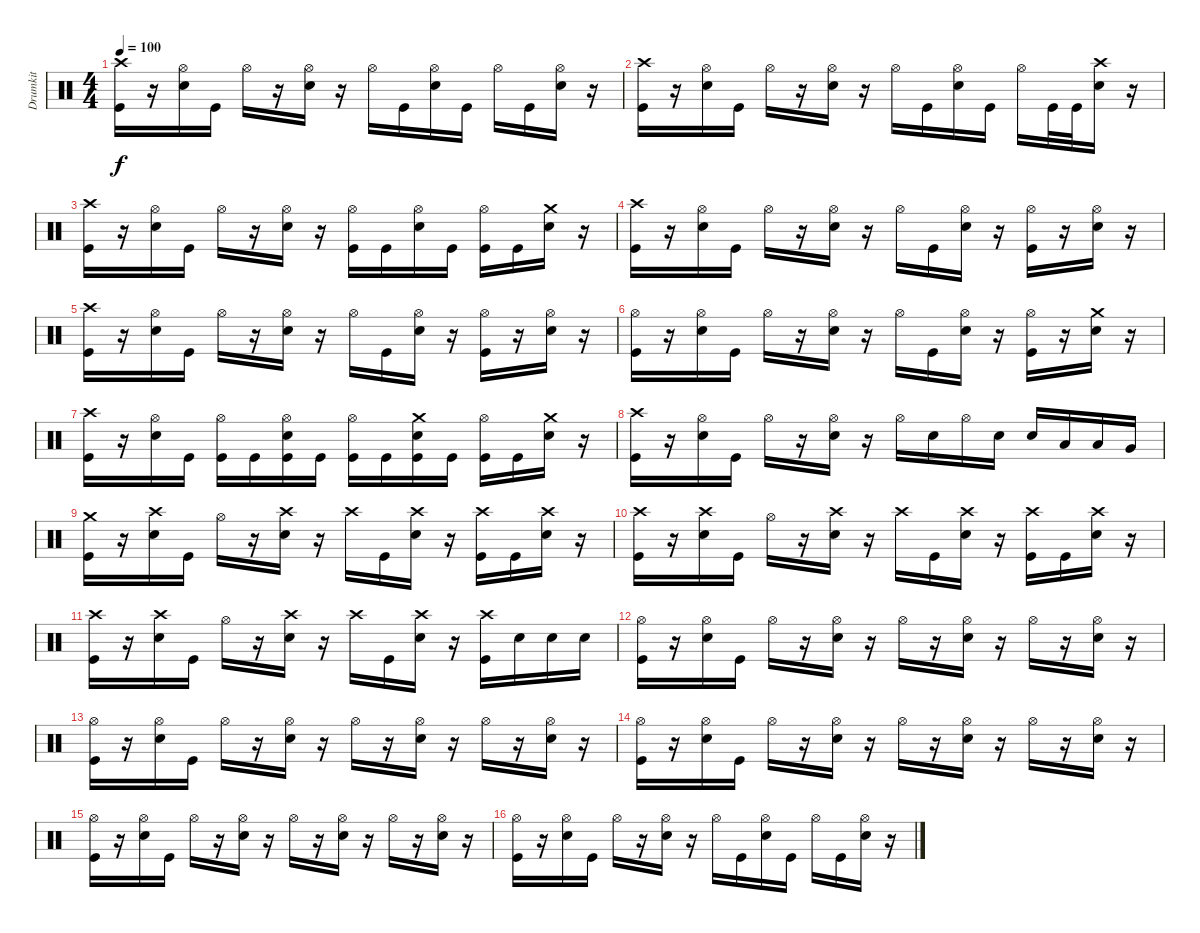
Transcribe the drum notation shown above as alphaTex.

\track ("Drumkit" "Drumkit") {solo instrument percussion}
\staff {score}
\articulation defaults
\ts (4 4)
\tempo 100
\clef neutral
\ks c
("Crash high (hit)" "Kick (hit)").16{dy f} r.16 ("Hi-Hat (open)" "Snare (hit) 2").16 "Kick (hit)".16 "Hi-Hat (open)".16 r.16 ("Hi-Hat (open)" "Snare (hit) 2").16 r.16 "Hi-Hat (open)".16 "Kick (hit)".16 ("Hi-Hat (open)" "Snare (hit) 2").16 "Kick (hit)".16 "Hi-Hat (open)".16 "Kick (hit)".16 ("Hi-Hat (open)" "Snare (hit) 2").16 r.16 |
("Crash high (hit)" "Kick (hit)").16 r.16 ("Hi-Hat (open)" "Snare (hit) 2").16 "Kick (hit)".16 "Hi-Hat (open)".16 r.16 ("Hi-Hat (open)" "Snare (hit) 2").16 r.16 "Hi-Hat (open)".16 "Kick (hit)".16 ("Hi-Hat (open)" "Snare (hit) 2").16 "Kick (hit)".16 "Hi-Hat (open)".16 "Kick (hit)".32 "Kick (hit)".32 ("Crash high (hit)" "Snare (hit) 2").16 r.16 |
("Crash high (hit)" "Kick (hit)").16 r.16 ("Hi-Hat (open)" "Snare (hit) 2").16 "Kick (hit)".16 "Hi-Hat (open)".16 r.16 ("Hi-Hat (open)" "Snare (hit) 2").16 r.16 ("Hi-Hat (open)" "Kick (hit)").16 "Kick (hit)".16 ("Hi-Hat (open)" "Snare (hit) 2").16 "Kick (hit)".16 ("Hi-Hat (open)" "Kick (hit)").16 "Kick (hit)".16 ("Crash medium (hit)" "Snare (hit) 2").16 r.16 |
("Crash high (hit)" "Kick (hit)").16 r.16 ("Hi-Hat (open)" "Snare (hit) 2").16 "Kick (hit)".16 "Hi-Hat (open)".16 r.16 ("Hi-Hat (open)" "Snare (hit) 2").16 r.16 "Hi-Hat (open)".16 "Kick (hit)".16 ("Hi-Hat (open)" "Snare (hit) 2").16 r.16 ("Hi-Hat (open)" "Kick (hit)").16 r.16 ("Hi-Hat (open)" "Snare (hit) 2").16 r.16 |
("Crash high (hit)" "Kick (hit)").16 r.16 ("Hi-Hat (open)" "Snare (hit) 2").16 "Kick (hit)".16 "Hi-Hat (open)".16 r.16 ("Hi-Hat (open)" "Snare (hit) 2").16 r.16 "Hi-Hat (open)".16 "Kick (hit)".16 ("Hi-Hat (open)" "Snare (hit) 2").16 r.16 ("Hi-Hat (open)" "Kick (hit)").16 r.16 ("Hi-Hat (open)" "Snare (hit) 2").16 r.16 |
("Hi-Hat (open)" "Kick (hit)").16 r.16 ("Hi-Hat (open)" "Snare (hit) 2").16 "Kick (hit)".16 "Hi-Hat (open)".16 r.16 ("Hi-Hat (open)" "Snare (hit) 2").16 r.16 "Hi-Hat (open)".16 "Kick (hit)".16 ("Hi-Hat (open)" "Snare (hit) 2").16 r.16 ("Hi-Hat (open)" "Kick (hit)").16 r.16 ("Crash medium (hit)" "Snare (hit) 2").16 r.16 |
("Crash high (hit)" "Kick (hit)").16 r.16 ("Hi-Hat (open)" "Snare (hit) 2").16 "Kick (hit)".16 ("Hi-Hat (open)" "Kick (hit)").16 "Kick (hit)".16 ("Hi-Hat (open)" "Snare (hit) 2" "Kick (hit)").16 "Kick (hit)".16 ("Hi-Hat (open)" "Kick (hit)").16 "Kick (hit)".16 ("Crash medium (hit)" "Snare (hit) 2" "Kick (hit)").16 "Kick (hit)".16 ("Hi-Hat (open)" "Kick (hit)").16 "Kick (hit)".16 ("Crash medium (hit)" "Snare (hit) 2").16 r.16 |
("Crash high (hit)" "Kick (hit)").16 r.16 ("Hi-Hat (open)" "Snare (hit) 2").16 "Kick (hit)".16 "Hi-Hat (open)".16 r.16 ("Hi-Hat (open)" "Snare (hit) 2").16 r.16 "Hi-Hat (open)".16 "Snare (hit) 2".16 "Hi-Hat (open)".16 "Snare (hit) 2".16 "Snare (hit) 2".16 "Low Tom (hit)".16 "Low Tom (hit)".16 "Very Low Tom (hit)".16 |
("Crash medium (hit)" "Kick (hit)").16 r.16 ("Crash high (hit)" "Snare (hit) 2").16 "Kick (hit)".16 "Hi-Hat (open)".16 r.16 ("Crash high (hit)" "Snare (hit) 2").16 r.16 "Crash high (hit)".16 "Kick (hit)".16 ("Crash high (hit)" "Snare (hit) 2").16 r.16 ("Crash high (hit)" "Kick (hit)").16 "Kick (hit)".16 ("Crash high (hit)" "Snare (hit) 2").16 r.16 |
("Crash high (hit)" "Kick (hit)").16 r.16 ("Crash high (hit)" "Snare (hit) 2").16 "Kick (hit)".16 "Hi-Hat (open)".16 r.16 ("Crash high (hit)" "Snare (hit) 2").16 r.16 "Crash high (hit)".16 "Kick (hit)".16 ("Crash high (hit)" "Snare (hit) 2").16 r.16 ("Crash high (hit)" "Kick (hit)").16 "Kick (hit)".16 ("Crash high (hit)" "Snare (hit) 2").16 r.16 |
("Crash high (hit)" "Kick (hit)").16 r.16 ("Crash high (hit)" "Snare (hit) 2").16 "Kick (hit)".16 "Hi-Hat (open)".16 r.16 ("Crash high (hit)" "Snare (hit) 2").16 r.16 "Crash high (hit)".16 "Kick (hit)".16 ("Crash high (hit)" "Snare (hit) 2").16 r.16 ("Crash high (hit)" "Kick (hit)").16 "Snare (hit) 2".16 "Snare (hit) 2".16 "Snare (hit) 2".16 |
("Hi-Hat (open)" "Kick (hit)").16 r.16 ("Hi-Hat (open)" "Snare (hit) 2").16 "Kick (hit)".16 "Hi-Hat (open)".16 r.16 ("Hi-Hat (open)" "Snare (hit) 2").16 r.16 "Hi-Hat (open)".16 r.16 ("Hi-Hat (open)" "Snare (hit) 2").16 r.16 "Hi-Hat (open)".16 r.16 ("Hi-Hat (open)" "Snare (hit) 2").16 r.16 |
("Hi-Hat (open)" "Kick (hit)").16 r.16 ("Hi-Hat (open)" "Snare (hit) 2").16 "Kick (hit)".16 "Hi-Hat (open)".16 r.16 ("Hi-Hat (open)" "Snare (hit) 2").16 r.16 "Hi-Hat (open)".16 r.16 ("Hi-Hat (open)" "Snare (hit) 2").16 r.16 "Hi-Hat (open)".16 r.16 ("Hi-Hat (open)" "Snare (hit) 2").16 r.16 |
("Hi-Hat (open)" "Kick (hit)").16 r.16 ("Hi-Hat (open)" "Snare (hit) 2").16 "Kick (hit)".16 "Hi-Hat (open)".16 r.16 ("Hi-Hat (open)" "Snare (hit) 2").16 r.16 "Hi-Hat (open)".16 r.16 ("Hi-Hat (open)" "Snare (hit) 2").16 r.16 "Hi-Hat (open)".16 r.16 ("Hi-Hat (open)" "Snare (hit) 2").16 r.16 |
("Hi-Hat (open)" "Kick (hit)").16 r.16 ("Hi-Hat (open)" "Snare (hit) 2").16 "Kick (hit)".16 "Hi-Hat (open)".16 r.16 ("Hi-Hat (open)" "Snare (hit) 2").16 r.16 "Hi-Hat (open)".16 r.16 ("Hi-Hat (open)" "Snare (hit) 2").16 r.16 "Hi-Hat (open)".16 r.16 ("Hi-Hat (open)" "Snare (hit) 2").16 r.16 |
("Hi-Hat (open)" "Kick (hit)").16 r.16 ("Hi-Hat (open)" "Snare (hit) 2").16 "Kick (hit)".16 "Hi-Hat (open)".16 r.16 ("Hi-Hat (open)" "Snare (hit) 2").16 r.16 "Hi-Hat (open)".16 "Kick (hit)".16 ("Hi-Hat (open)" "Snare (hit) 2").16 "Kick (hit)".16 "Hi-Hat (open)".16 "Kick (hit)".16 ("Hi-Hat (open)" "Snare (hit) 2").16 r.16
